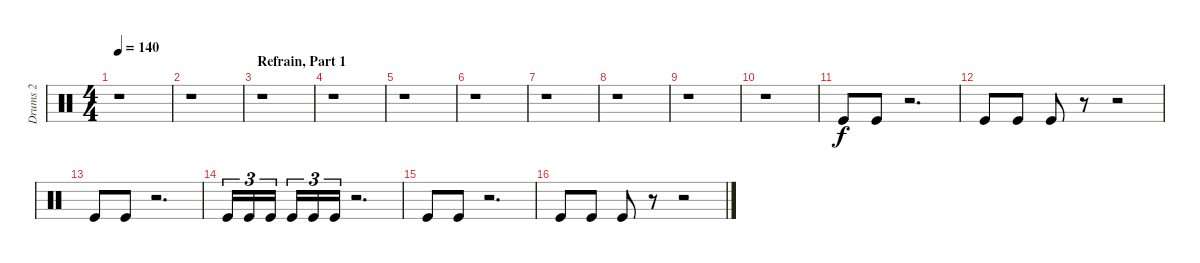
\track ("Drums 2" "Drums 2") {instrument percussion}
\staff {score}
\articulation defaults
\ts (4 4)
\tempo 140
\clef neutral
\ks c
r.1{dy f} |
r.1 |
\section ("" "Refrain, Part 1")
r.1 |
r.1 |
r.1 |
r.1 |
r.1 |
r.1 |
r.1 |
r.1 |
"Kick (hit)".8 "Kick (hit)".8 r.2{d} |
"Kick (hit)".8 "Kick (hit)".8 "Kick (hit)".8 r.8 r.2 |
"Kick (hit)".8 "Kick (hit)".8 r.2{d} |
"Kick (hit)".16{tu (3 2)} "Kick (hit)".16{tu (3 2)} "Kick (hit)".16{tu (3 2)} "Kick (hit)".16{tu (3 2)} "Kick (hit)".16{tu (3 2)} "Kick (hit)".16{tu (3 2)} r.2{d} |
"Kick (hit)".8 "Kick (hit)".8 r.2{d} |
"Kick (hit)".8 "Kick (hit)".8 "Kick (hit)".8 r.8 r.2
